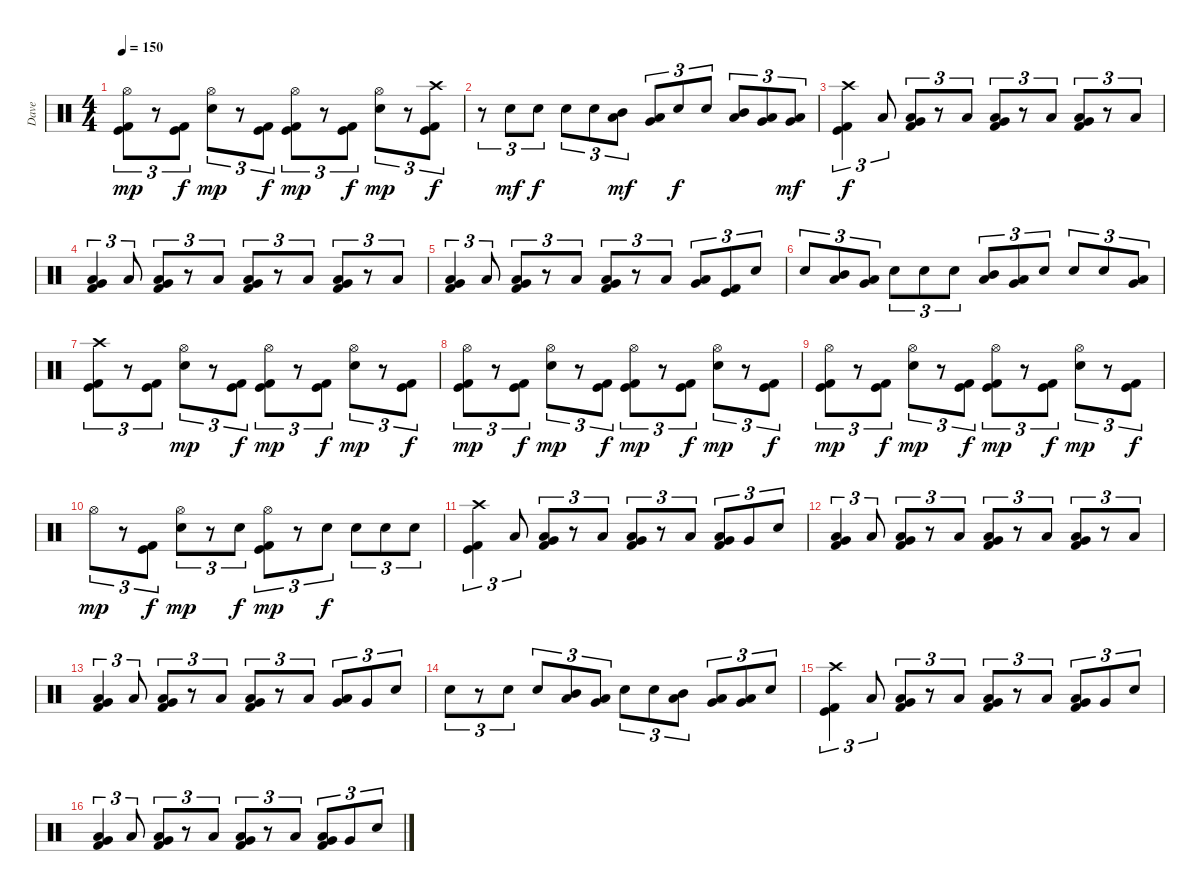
\track ("Dave" "Dave") {instrument percussion}
\staff {score}
\articulation defaults
\ts (4 4)
\tempo 150
\clef neutral
\ks c
("Hi-Hat (open)" "Kick (hit)" "Kick (hit) 2").8{tu (3 2) dy mp} r.8{tu (3 2)} ("Kick (hit)" "Kick (hit) 2").8{tu (3 2) dy f} ("Hi-Hat (open)" "Electric Snare (hit)").8{tu (3 2) dy mp} r.8{tu (3 2)} ("Kick (hit)" "Kick (hit) 2").8{tu (3 2) dy f} ("Hi-Hat (open)" "Kick (hit)" "Kick (hit) 2").8{tu (3 2) dy mp} r.8{tu (3 2)} ("Kick (hit)" "Kick (hit) 2").8{tu (3 2) dy f} ("Hi-Hat (open)" "Electric Snare (hit)").8{tu (3 2) dy mp} r.8{tu (3 2)} ("Crash high (hit)" "Kick (hit)" "Kick (hit) 2").8{tu (3 2) dy f} |
r.8{tu (3 2)} "Electric Snare (hit)".8{tu (3 2) dy mf} "Electric Snare (hit)".8{tu (3 2) dy f} "Electric Snare (hit)".8{tu (3 2)} "Electric Snare (hit)".8{tu (3 2)} ("Low Tom (hit)" "Mid Tom (hit)").8{tu (3 2) dy mf} ("Very Low Tom (hit)" "Low Tom (hit)").8{tu (3 2)} "Electric Snare (hit)".8{tu (3 2) dy f} "Electric Snare (hit)".8{tu (3 2)} ("Low Tom (hit)" "Mid Tom (hit)").8{tu (3 2)} ("Very Low Tom (hit)" "Low Tom (hit)").8{tu (3 2)} ("Very Low Tom (hit)" "Low Tom (hit)").8{tu (3 2) dy mf} |
("Crash high (hit)" "Kick (hit)" "Kick (hit) 2").4{tu (3 2) dy f} "Low Floor Tom (hit)".8{tu (3 2)} ("Low Floor Tom (hit)" "Very Low Tom (hit)" "Kick (hit) 2").8{tu (3 2) bd 120} r.8{tu (3 2)} "Low Floor Tom (hit)".8{tu (3 2)} ("Low Floor Tom (hit)" "Very Low Tom (hit)" "Kick (hit) 2").8{tu (3 2) bd 120} r.8{tu (3 2)} "Low Floor Tom (hit)".8{tu (3 2)} ("Low Floor Tom (hit)" "Very Low Tom (hit)" "Kick (hit) 2").8{tu (3 2) bd 120} r.8{tu (3 2)} "Low Floor Tom (hit)".8{tu (3 2)} |
("Low Floor Tom (hit)" "Very Low Tom (hit)" "Kick (hit) 2").4{tu (3 2) bd 120} "Low Floor Tom (hit)".8{tu (3 2)} ("Low Floor Tom (hit)" "Very Low Tom (hit)" "Kick (hit) 2").8{tu (3 2) bd 120} r.8{tu (3 2)} "Low Floor Tom (hit)".8{tu (3 2)} ("Low Floor Tom (hit)" "Very Low Tom (hit)" "Kick (hit) 2").8{tu (3 2) bd 120} r.8{tu (3 2)} "Low Floor Tom (hit)".8{tu (3 2)} ("Low Floor Tom (hit)" "Very Low Tom (hit)" "Kick (hit) 2").8{tu (3 2) bd 120} r.8{tu (3 2)} "Low Floor Tom (hit)".8{tu (3 2)} |
("Low Floor Tom (hit)" "Very Low Tom (hit)" "Kick (hit) 2").4{tu (3 2) bd 120} "Low Floor Tom (hit)".8{tu (3 2)} ("Low Floor Tom (hit)" "Very Low Tom (hit)" "Kick (hit) 2").8{tu (3 2) bd 120} r.8{tu (3 2)} "Low Floor Tom (hit)".8{tu (3 2)} ("Low Floor Tom (hit)" "Very Low Tom (hit)" "Kick (hit) 2").8{tu (3 2) bd 120} r.8{tu (3 2)} "Low Floor Tom (hit)".8{tu (3 2)} ("Low Tom (hit)" "Very Low Tom (hit)").8{tu (3 2) bd 120} ("Kick (hit)" "Kick (hit) 2").8{tu (3 2)} "Electric Snare (hit)".8{tu (3 2)} |
"Electric Snare (hit)".8{tu (3 2)} ("Mid Tom (hit)" "Low Tom (hit)").8{tu (3 2)} ("Low Tom (hit)" "Very Low Tom (hit)").8{tu (3 2)} "Electric Snare (hit)".8{tu (3 2)} "Electric Snare (hit)".8{tu (3 2)} "Electric Snare (hit)".8{tu (3 2)} ("Mid Tom (hit)" "Low Tom (hit)").8{tu (3 2)} ("Low Tom (hit)" "Very Low Tom (hit)").8{tu (3 2)} "Electric Snare (hit)".8{tu (3 2)} "Electric Snare (hit)".8{tu (3 2)} "Electric Snare (hit)".8{tu (3 2)} ("Very Low Tom (hit)" "Low Tom (hit)").8{tu (3 2)} |
("Crash high (hit)" "Kick (hit)" "Kick (hit) 2").8{tu (3 2)} r.8{tu (3 2)} ("Kick (hit)" "Kick (hit) 2").8{tu (3 2)} ("Hi-Hat (open)" "Electric Snare (hit)").8{tu (3 2) dy mp} r.8{tu (3 2)} ("Kick (hit)" "Kick (hit) 2").8{tu (3 2) dy f} ("Hi-Hat (open)" "Kick (hit)" "Kick (hit) 2").8{tu (3 2) dy mp} r.8{tu (3 2)} ("Kick (hit)" "Kick (hit) 2").8{tu (3 2) dy f} ("Hi-Hat (open)" "Electric Snare (hit)").8{tu (3 2) dy mp} r.8{tu (3 2)} ("Kick (hit)" "Kick (hit) 2").8{tu (3 2) dy f} |
("Hi-Hat (open)" "Kick (hit)" "Kick (hit) 2").8{tu (3 2) dy mp} r.8{tu (3 2)} ("Kick (hit)" "Kick (hit) 2").8{tu (3 2) dy f} ("Hi-Hat (open)" "Electric Snare (hit)").8{tu (3 2) dy mp} r.8{tu (3 2)} ("Kick (hit)" "Kick (hit) 2").8{tu (3 2) dy f} ("Hi-Hat (open)" "Kick (hit)" "Kick (hit) 2").8{tu (3 2) dy mp} r.8{tu (3 2)} ("Kick (hit)" "Kick (hit) 2").8{tu (3 2) dy f} ("Hi-Hat (open)" "Electric Snare (hit)").8{tu (3 2) dy mp} r.8{tu (3 2)} ("Kick (hit)" "Kick (hit) 2").8{tu (3 2) dy f} |
("Hi-Hat (open)" "Kick (hit)" "Kick (hit) 2").8{tu (3 2) dy mp} r.8{tu (3 2)} ("Kick (hit)" "Kick (hit) 2").8{tu (3 2) dy f} ("Hi-Hat (open)" "Electric Snare (hit)").8{tu (3 2) dy mp} r.8{tu (3 2)} ("Kick (hit)" "Kick (hit) 2").8{tu (3 2) dy f} ("Hi-Hat (open)" "Kick (hit)" "Kick (hit) 2").8{tu (3 2) dy mp} r.8{tu (3 2)} ("Kick (hit)" "Kick (hit) 2").8{tu (3 2) dy f} ("Hi-Hat (open)" "Electric Snare (hit)").8{tu (3 2) dy mp} r.8{tu (3 2)} ("Kick (hit)" "Kick (hit) 2").8{tu (3 2) dy f} |
"Hi-Hat (open)".8{tu (3 2) dy mp} r.8{tu (3 2)} ("Kick (hit)" "Kick (hit) 2").8{tu (3 2) dy f} ("Hi-Hat (open)" "Electric Snare (hit)").8{tu (3 2) dy mp} r.8{tu (3 2)} "Electric Snare (hit)".8{tu (3 2) dy f} ("Hi-Hat (open)" "Kick (hit)" "Kick (hit) 2").8{tu (3 2) dy mp} r.8{tu (3 2)} "Electric Snare (hit)".8{tu (3 2) dy f} "Electric Snare (hit)".8{tu (3 2)} "Electric Snare (hit)".8{tu (3 2)} "Electric Snare (hit)".8{tu (3 2)} |
("Crash high (hit)" "Kick (hit)" "Kick (hit) 2").4{tu (3 2)} "Low Floor Tom (hit)".8{tu (3 2)} ("Low Floor Tom (hit)" "Very Low Tom (hit)" "Kick (hit) 2").8{tu (3 2) bd 120} r.8{tu (3 2)} "Low Floor Tom (hit)".8{tu (3 2)} ("Low Floor Tom (hit)" "Very Low Tom (hit)" "Kick (hit) 2").8{tu (3 2) bd 120} r.8{tu (3 2)} "Low Floor Tom (hit)".8{tu (3 2)} ("Low Floor Tom (hit)" "Very Low Tom (hit)" "Kick (hit) 2").8{tu (3 2) bd 120} "Very Low Tom (hit)".8{tu (3 2)} "Electric Snare (hit)".8{tu (3 2)} |
("Low Floor Tom (hit)" "Very Low Tom (hit)" "Kick (hit) 2").4{tu (3 2) bd 120} "Low Floor Tom (hit)".8{tu (3 2)} ("Low Floor Tom (hit)" "Very Low Tom (hit)" "Kick (hit) 2").8{tu (3 2) bd 120} r.8{tu (3 2)} "Low Floor Tom (hit)".8{tu (3 2)} ("Low Floor Tom (hit)" "Very Low Tom (hit)" "Kick (hit) 2").8{tu (3 2) bd 120} r.8{tu (3 2)} "Low Floor Tom (hit)".8{tu (3 2)} ("Low Floor Tom (hit)" "Very Low Tom (hit)" "Kick (hit) 2").8{tu (3 2) bd 120} r.8{tu (3 2)} "Low Floor Tom (hit)".8{tu (3 2)} |
("Low Floor Tom (hit)" "Very Low Tom (hit)" "Kick (hit) 2").4{tu (3 2) bd 120} "Low Floor Tom (hit)".8{tu (3 2)} ("Low Floor Tom (hit)" "Very Low Tom (hit)" "Kick (hit) 2").8{tu (3 2) bd 120} r.8{tu (3 2)} "Low Floor Tom (hit)".8{tu (3 2)} ("Low Floor Tom (hit)" "Very Low Tom (hit)" "Kick (hit) 2").8{tu (3 2) bd 120} r.8{tu (3 2)} "Low Floor Tom (hit)".8{tu (3 2)} ("Low Tom (hit)" "Very Low Tom (hit)").8{tu (3 2) bd 120} "Very Low Tom (hit)".8{tu (3 2)} "Electric Snare (hit)".8{tu (3 2)} |
"Electric Snare (hit)".8{tu (3 2)} r.8{tu (3 2)} "Electric Snare (hit)".8{tu (3 2)} "Electric Snare (hit)".8{tu (3 2)} ("Mid Tom (hit)" "Low Tom (hit)").8{tu (3 2)} ("Low Tom (hit)" "Very Low Tom (hit)").8{tu (3 2)} "Electric Snare (hit)".8{tu (3 2)} "Electric Snare (hit)".8{tu (3 2)} ("Mid Tom (hit)" "Low Tom (hit)").8{tu (3 2)} ("Very Low Tom (hit)" "Low Tom (hit)").8{tu (3 2)} ("Low Tom (hit)" "Very Low Tom (hit)").8{tu (3 2)} "Electric Snare (hit)".8{tu (3 2)} |
("Crash high (hit)" "Kick (hit)" "Kick (hit) 2").4{tu (3 2)} "Low Floor Tom (hit)".8{tu (3 2)} ("Low Floor Tom (hit)" "Very Low Tom (hit)" "Kick (hit) 2").8{tu (3 2) bd 120} r.8{tu (3 2)} "Low Floor Tom (hit)".8{tu (3 2)} ("Low Floor Tom (hit)" "Very Low Tom (hit)" "Kick (hit) 2").8{tu (3 2) bd 120} r.8{tu (3 2)} "Low Floor Tom (hit)".8{tu (3 2)} ("Low Floor Tom (hit)" "Very Low Tom (hit)" "Kick (hit) 2").8{tu (3 2) bd 120} "Very Low Tom (hit)".8{tu (3 2)} "Electric Snare (hit)".8{tu (3 2)} |
("Low Floor Tom (hit)" "Very Low Tom (hit)" "Kick (hit) 2").4{tu (3 2) bd 120} "Low Floor Tom (hit)".8{tu (3 2)} ("Low Floor Tom (hit)" "Very Low Tom (hit)" "Kick (hit) 2").8{tu (3 2) bd 120} r.8{tu (3 2)} "Low Floor Tom (hit)".8{tu (3 2)} ("Low Floor Tom (hit)" "Very Low Tom (hit)" "Kick (hit) 2").8{tu (3 2) bd 120} r.8{tu (3 2)} "Low Floor Tom (hit)".8{tu (3 2)} ("Low Floor Tom (hit)" "Very Low Tom (hit)" "Kick (hit) 2").8{tu (3 2) bd 120} "Very Low Tom (hit)".8{tu (3 2)} "Electric Snare (hit)".8{tu (3 2)}
